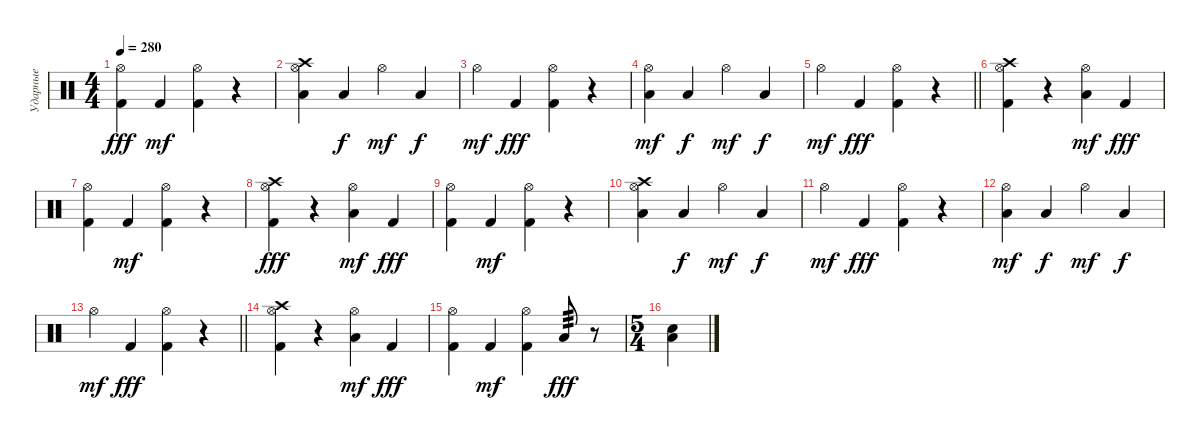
\track ("Ударные" "Ударные") {instrument percussion}
\staff {score}
\articulation defaults
\ts (4 4)
\tempo 280
\clef neutral
\ks c
("Hi-Hat (open)" "Kick (hit) 2").4{dy fff} "Kick (hit) 2".4{dy mf} ("Hi-Hat (open)" "Kick (hit) 2").4 r.4 |
("Hi-Hat (open)" "Crash high (hit)" "Low Tom (hit)").4 "Low Tom (hit)".4{dy f} "Hi-Hat (open)".4{dy mf} "Low Tom (hit)".4{dy f} |
"Hi-Hat (open)".4{dy mf} "Kick (hit) 2".4{dy fff} ("Hi-Hat (open)" "Kick (hit) 2").4 r.4 |
("Hi-Hat (open)" "Low Tom (hit)").4{dy mf} "Low Tom (hit)".4{dy f} "Hi-Hat (open)".4{dy mf} "Low Tom (hit)".4{dy f} |
\barLineRight lightlight "Hi-Hat (open)".4{dy mf} "Kick (hit) 2".4{dy fff}
("Hi-Hat (open)" "Kick (hit) 2").4 r.4 |
("Hi-Hat (open)" "Crash high (hit)" "Kick (hit) 2").4 r.4 ("Hi-Hat (open)" "Low Tom (hit)").4{dy mf} "Kick (hit) 2".4{dy fff} |
("Hi-Hat (open)" "Kick (hit) 2").4 "Kick (hit) 2".4{dy mf} ("Hi-Hat (open)" "Kick (hit) 2").4 r.4 |
("Hi-Hat (open)" "Crash high (hit)" "Kick (hit) 2").4{dy fff} r.4 ("Hi-Hat (open)" "Low Tom (hit)").4{dy mf} "Kick (hit) 2".4{dy fff} |
("Hi-Hat (open)" "Kick (hit) 2").4 "Kick (hit) 2".4{dy mf} ("Hi-Hat (open)" "Kick (hit) 2").4 r.4 |
("Hi-Hat (open)" "Crash high (hit)" "Low Tom (hit)").4 "Low Tom (hit)".4{dy f} "Hi-Hat (open)".4{dy mf} "Low Tom (hit)".4{dy f} |
"Hi-Hat (open)".4{dy mf} "Kick (hit) 2".4{dy fff} ("Hi-Hat (open)" "Kick (hit) 2").4 r.4 |
("Hi-Hat (open)" "Low Tom (hit)").4{dy mf} "Low Tom (hit)".4{dy f} "Hi-Hat (open)".4{dy mf} "Low Tom (hit)".4{dy f} |
\barLineRight lightlight "Hi-Hat (open)".4{dy mf} "Kick (hit) 2".4{dy fff}
("Hi-Hat (open)" "Kick (hit) 2").4 r.4 |
("Hi-Hat (open)" "Crash high (hit)" "Kick (hit) 2").4 r.4 ("Hi-Hat (open)" "Low Tom (hit)").4{dy mf} "Kick (hit) 2".4{dy fff} |
("Hi-Hat (open)" "Kick (hit) 2").4 "Kick (hit) 2".4{dy mf} ("Hi-Hat (open)" "Kick (hit) 2").4 "Low Tom (hit)".8{tp 3 dy fff} r.8 |
\ts (5 4)
("Low Tom (hit)" "Snare (hit) 2").4
